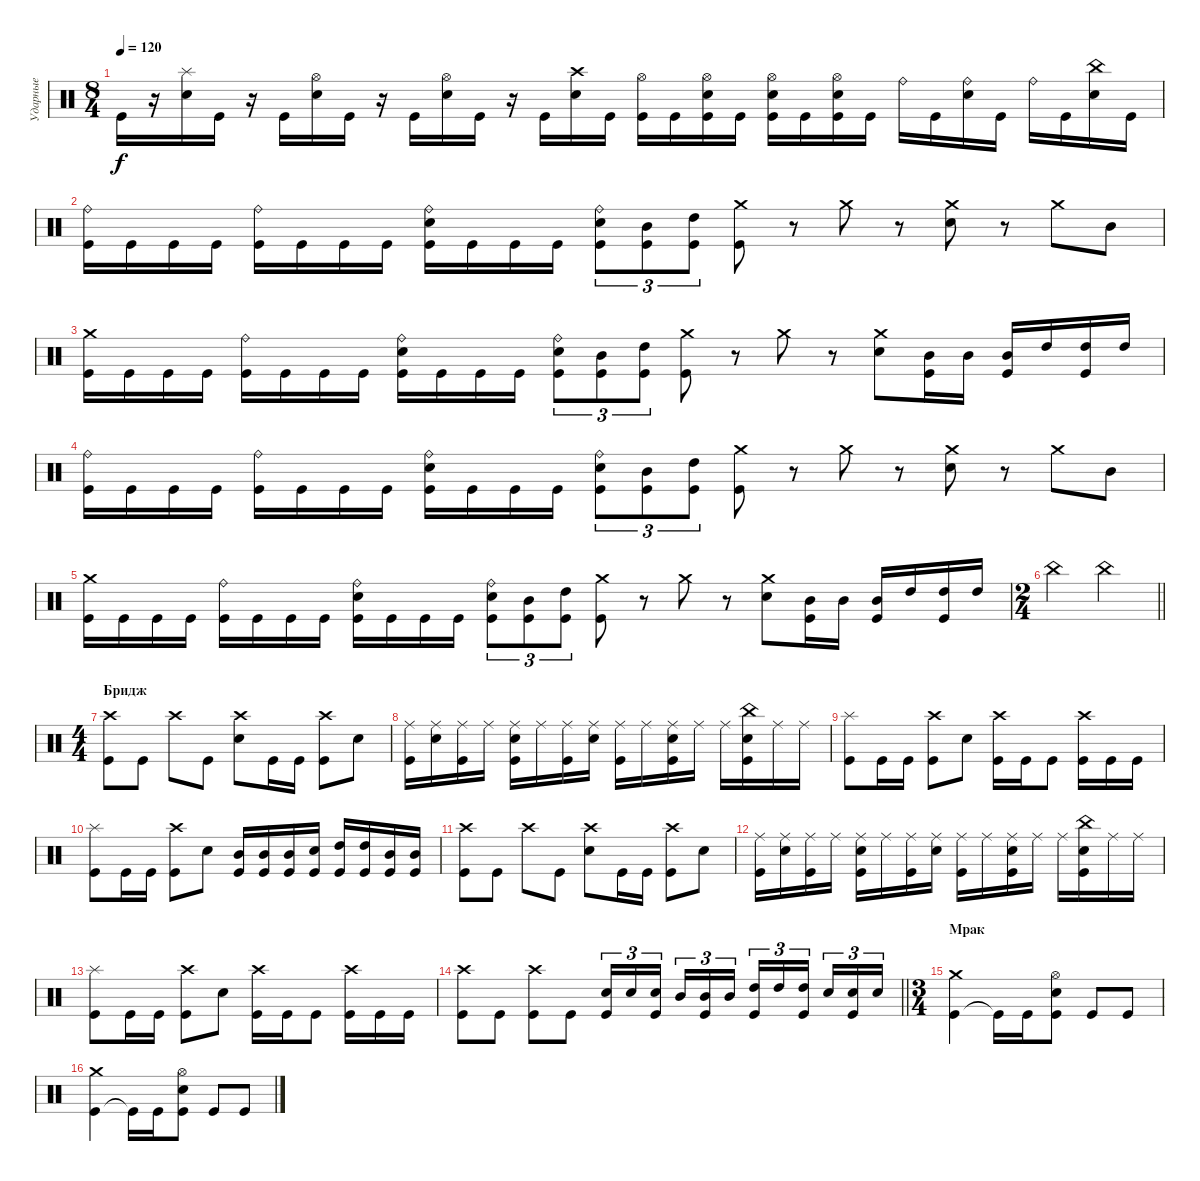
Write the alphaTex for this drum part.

\track ("Ударные" "Ударные") {instrument percussion}
\staff {score}
\articulation defaults
\ts (8 4)
\tempo 120
\clef neutral
\ks c "Kick (hit)".16{dy f}
r.16 ("Snare (hit) 2" "Splash (hit)").16 "Kick (hit)".16 r.16 "Kick (hit)".16 ("Snare (hit) 2" "Hi-Hat (open)").16 "Kick (hit)".16 r.16 "Kick (hit)".16 ("Snare (hit) 2" "Hi-Hat (open)").16 "Kick (hit)".16 r.16 "Kick (hit)".16 ("Snare (hit) 2" "Crash high (hit)").16 "Kick (hit)".16 ("Kick (hit)" "Hi-Hat (open)").16 "Kick (hit)".16 ("Kick (hit)" "Snare (hit) 2" "Hi-Hat (open)").16 "Kick (hit)".16 ("Kick (hit)" "Snare (hit) 2" "Hi-Hat (open)").16 "Kick (hit)".16 ("Kick (hit)" "Snare (hit) 2" "Hi-Hat (open)").16 "Kick (hit)".16 "Ride (bell)".16 "Kick (hit)".16 ("Snare (hit) 2" "Ride (bell)").16 "Kick (hit)".16 "Ride (bell)".16 "Kick (hit)".16 ("Snare (hit) 2" "China (hit)").16 "Kick (hit)".16 |
("Kick (hit)" "Ride (bell)").16 "Kick (hit)".16 "Kick (hit)".16 "Kick (hit)".16 ("Kick (hit)" "Ride (bell)").16 "Kick (hit)".16 "Kick (hit)".16 "Kick (hit)".16 ("Kick (hit)" "Snare (hit) 2" "Ride (bell)").16 "Kick (hit)".16 "Kick (hit)".16 "Kick (hit)".16 ("Kick (hit)" "Snare (hit) 2" "Ride (bell)").8{tu (3 2)} ("Kick (hit)" "Mid Tom (hit)").8{tu (3 2)} ("Kick (hit)" "High Tom (hit)").8{tu (3 2)} ("Kick (hit)" "Crash medium (hit)").8 r.8 "Crash medium (hit)".8 r.8 ("Snare (hit) 2" "Crash medium (hit)").8 r.8 "Crash medium (hit)".8 "Mid Tom (hit)".8 |
("Kick (hit)" "Crash medium (hit)").16 "Kick (hit)".16 "Kick (hit)".16 "Kick (hit)".16 ("Kick (hit)" "Ride (bell)").16 "Kick (hit)".16 "Kick (hit)".16 "Kick (hit)".16 ("Kick (hit)" "Snare (hit) 2" "Ride (bell)").16 "Kick (hit)".16 "Kick (hit)".16 "Kick (hit)".16 ("Kick (hit)" "Snare (hit) 2" "Ride (bell)").8{tu (3 2)} ("Kick (hit)" "Mid Tom (hit)").8{tu (3 2)} ("Kick (hit)" "High Tom (hit)").8{tu (3 2)} ("Kick (hit)" "Crash medium (hit)").8 r.8 "Crash medium (hit)".8 r.8 ("Snare (hit) 2" "Crash medium (hit)").8 ("Kick (hit)" "Mid Tom (hit)").16 "Mid Tom (hit)".16 ("Kick (hit)" "Mid Tom (hit)").16 "High Tom (hit)".16 ("Kick (hit)" "High Tom (hit)").16 "High Tom (hit)".16 |
("Kick (hit)" "Ride (bell)").16 "Kick (hit)".16 "Kick (hit)".16 "Kick (hit)".16 ("Kick (hit)" "Ride (bell)").16 "Kick (hit)".16 "Kick (hit)".16 "Kick (hit)".16 ("Kick (hit)" "Snare (hit) 2" "Ride (bell)").16 "Kick (hit)".16 "Kick (hit)".16 "Kick (hit)".16 ("Kick (hit)" "Snare (hit) 2" "Ride (bell)").8{tu (3 2)} ("Kick (hit)" "Mid Tom (hit)").8{tu (3 2)} ("Kick (hit)" "High Tom (hit)").8{tu (3 2)} ("Kick (hit)" "Crash medium (hit)").8 r.8 "Crash medium (hit)".8 r.8 ("Snare (hit) 2" "Crash medium (hit)").8 r.8 "Crash medium (hit)".8 "Mid Tom (hit)".8 |
("Kick (hit)" "Crash medium (hit)").16 "Kick (hit)".16 "Kick (hit)".16 "Kick (hit)".16 ("Kick (hit)" "Ride (bell)").16 "Kick (hit)".16 "Kick (hit)".16 "Kick (hit)".16 ("Kick (hit)" "Snare (hit) 2" "Ride (bell)").16 "Kick (hit)".16 "Kick (hit)".16 "Kick (hit)".16 ("Kick (hit)" "Snare (hit) 2" "Ride (bell)").8{tu (3 2)} ("Kick (hit)" "Mid Tom (hit)").8{tu (3 2)} ("Kick (hit)" "High Tom (hit)").8{tu (3 2)} ("Kick (hit)" "Crash medium (hit)").8 r.8 "Crash medium (hit)".8 r.8 ("Snare (hit) 2" "Crash medium (hit)").8 ("Kick (hit)" "Mid Tom (hit)").16 "Mid Tom (hit)".16 ("Kick (hit)" "Mid Tom (hit)").16 "High Tom (hit)".16 ("Kick (hit)" "High Tom (hit)").16 "High Tom (hit)".16 |
\ts (2 4)
\barLineRight lightlight "China (hit)".4 "China (hit)".4
|
\ts (4 4)
\section ("" "Бридж")
("Kick (hit)" "Crash high (hit)").8 "Kick (hit)".8 "Crash high (hit)".8 "Kick (hit)".8 ("Snare (hit) 2" "Crash high (hit)").8 "Kick (hit)".16 "Kick (hit)".16 ("Kick (hit)" "Crash high (hit)").8 "Snare (hit) 2".8 |
("Ride (middle)" "Kick (hit)").16 ("Snare (hit) 2" "Ride (middle)").16 ("Ride (middle)" "Kick (hit)").16 "Ride (middle)".16 ("Snare (hit) 2" "Ride (middle)" "Kick (hit)").16 "Ride (middle)".16 ("Ride (middle)" "Kick (hit)").16 ("Snare (hit) 2" "Ride (middle)").16 ("Ride (middle)" "Kick (hit)").16 "Ride (middle)".16 ("Snare (hit) 2" "Ride (middle)" "Kick (hit)").16 "Ride (middle)".16 "Ride (middle)".16 ("Snare (hit) 2" "China (hit)" "Kick (hit)").16 "Ride (middle)".16 "Ride (middle)".16 |
("Kick (hit)" "Splash (hit)").8 "Kick (hit)".16 "Kick (hit)".16 ("Kick (hit)" "Crash high (hit)").8 "Snare (hit) 2".8 ("Kick (hit)" "Crash high (hit)").16 "Kick (hit)".16 "Kick (hit)".8 ("Kick (hit)" "Crash high (hit)").16 "Kick (hit)".16 "Kick (hit)".16 |
("Kick (hit)" "Splash (hit)").8 "Kick (hit)".16 "Kick (hit)".16 ("Kick (hit)" "Crash high (hit)").8 "Snare (hit) 2".8 ("Kick (hit)" "Mid Tom (hit)").16 ("Kick (hit)" "Mid Tom (hit)").16 ("Kick (hit)" "Mid Tom (hit)").16 ("Kick (hit)" "Snare (hit) 2").16 ("Kick (hit)" "High Tom (hit)").16 ("Kick (hit)" "High Tom (hit)").16 ("Kick (hit)" "Mid Tom (hit)").16 ("Kick (hit)" "Mid Tom (hit)").16 |
("Kick (hit)" "Crash high (hit)").8 "Kick (hit)".8 "Crash high (hit)".8 "Kick (hit)".8 ("Snare (hit) 2" "Crash high (hit)").8 "Kick (hit)".16 "Kick (hit)".16 ("Kick (hit)" "Crash high (hit)").8 "Snare (hit) 2".8 |
("Ride (middle)" "Kick (hit)").16 ("Snare (hit) 2" "Ride (middle)").16 ("Ride (middle)" "Kick (hit)").16 "Ride (middle)".16 ("Snare (hit) 2" "Ride (middle)" "Kick (hit)").16 "Ride (middle)".16 ("Ride (middle)" "Kick (hit)").16 ("Snare (hit) 2" "Ride (middle)").16 ("Ride (middle)" "Kick (hit)").16 "Ride (middle)".16 ("Snare (hit) 2" "Ride (middle)" "Kick (hit)").16 "Ride (middle)".16 "Ride (middle)".16 ("Snare (hit) 2" "China (hit)" "Kick (hit)").16 "Ride (middle)".16 "Ride (middle)".16 |
("Kick (hit)" "Splash (hit)").8 "Kick (hit)".16 "Kick (hit)".16 ("Kick (hit)" "Crash high (hit)").8 "Snare (hit) 2".8 ("Kick (hit)" "Crash high (hit)").16 "Kick (hit)".16 "Kick (hit)".8 ("Kick (hit)" "Crash high (hit)").16 "Kick (hit)".16 "Kick (hit)".16 |
\barLineRight lightlight
("Kick (hit)" "Crash high (hit)").8 "Kick (hit)".8 ("Kick (hit)" "Crash high (hit)").8 "Kick (hit)".8 ("Kick (hit)" "Snare (hit) 2").16{tu (3 2)} "Snare (hit) 2".16{tu (3 2)} ("Kick (hit)" "Snare (hit) 2").16{tu (3 2) beam splitsecondary} "Mid Tom (hit)".16{tu (3 2)} ("Kick (hit)" "Mid Tom (hit)").16{tu (3 2)} "Mid Tom (hit)".16{tu (3 2)} ("Kick (hit)" "High Tom (hit)").16{tu (3 2)} "High Tom (hit)".16{tu (3 2)} ("Kick (hit)" "High Tom (hit)").16{tu (3 2) beam splitsecondary} "Snare (hit) 2".16{tu (3 2)} ("Kick (hit)" "Snare (hit) 2").16{tu (3 2)} "Snare (hit) 2".16{tu (3 2)} |
\ts (3 4)
\section ("" "Мрак")
("Kick (hit)" "Crash medium (hit)").4 "Kick (hit)"{t}.16 "Kick (hit)".16 ("Kick (hit)" "Snare (hit) 2" "Hi-Hat (open)").8 "Kick (hit)".8 "Kick (hit)".8 |
("Kick (hit)" "Crash medium (hit)").4 "Kick (hit)"{t}.16 "Kick (hit)".16 ("Kick (hit)" "Snare (hit) 2" "Hi-Hat (open)").8 "Kick (hit)".8 "Kick (hit)".8
